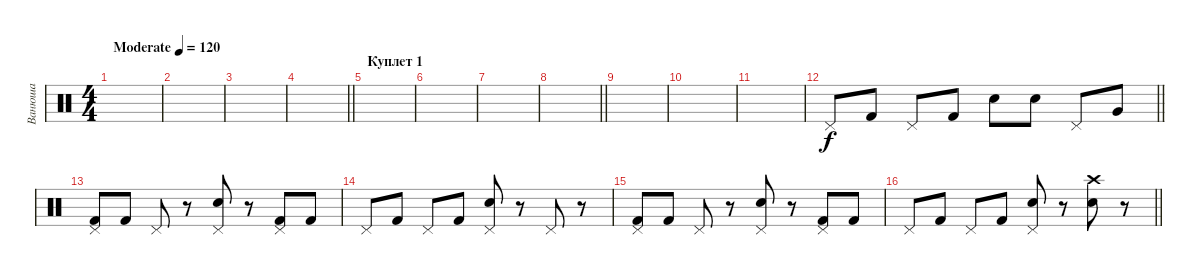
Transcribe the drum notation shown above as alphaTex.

\track ("Ванюша" "Ванюша") {instrument percussion}
\staff {score}
\articulation defaults
\ts (4 4)
\tempo (120 "Moderate")
\clef neutral
\ks c
|
|
|
\barLineRight lightlight
|
\section ("" "Куплет 1")
|
|
|
\barLineRight lightlight
|
|
|
|
\barLineRight lightlight "Pedal Hi-Hat (hit)".8 "Kick (hit) 2".8 "Pedal Hi-Hat (hit)".8 "Kick (hit) 2".8 "Snare (hit) 2".8 "Snare (hit) 2".8 "Pedal Hi-Hat (hit)".8 "Very Low Tom (hit)".8
|
("Pedal Hi-Hat (hit)" "Kick (hit) 2").8 "Kick (hit) 2".8 "Pedal Hi-Hat (hit)".8 r.8 ("Pedal Hi-Hat (hit)" "Snare (hit) 2").8 r.8 ("Pedal Hi-Hat (hit)" "Kick (hit) 2").8 "Kick (hit) 2".8 |
"Pedal Hi-Hat (hit)".8 "Kick (hit) 2".8 "Pedal Hi-Hat (hit)".8 "Kick (hit) 2".8 ("Pedal Hi-Hat (hit)" "Snare (hit) 2").8 r.8 "Pedal Hi-Hat (hit)".8 r.8 |
("Pedal Hi-Hat (hit)" "Kick (hit) 2").8 "Kick (hit) 2".8 "Pedal Hi-Hat (hit)".8 r.8 ("Pedal Hi-Hat (hit)" "Snare (hit) 2").8 r.8 ("Pedal Hi-Hat (hit)" "Kick (hit) 2").8 "Kick (hit) 2".8 |
\barLineRight lightlight "Pedal Hi-Hat (hit)".8 "Kick (hit) 2".8 "Pedal Hi-Hat (hit)".8 "Kick (hit) 2".8
("Pedal Hi-Hat (hit)" "Snare (hit) 2").8 r.8 ("Crash high (hit)" "Snare (hit) 2").8 r.8
